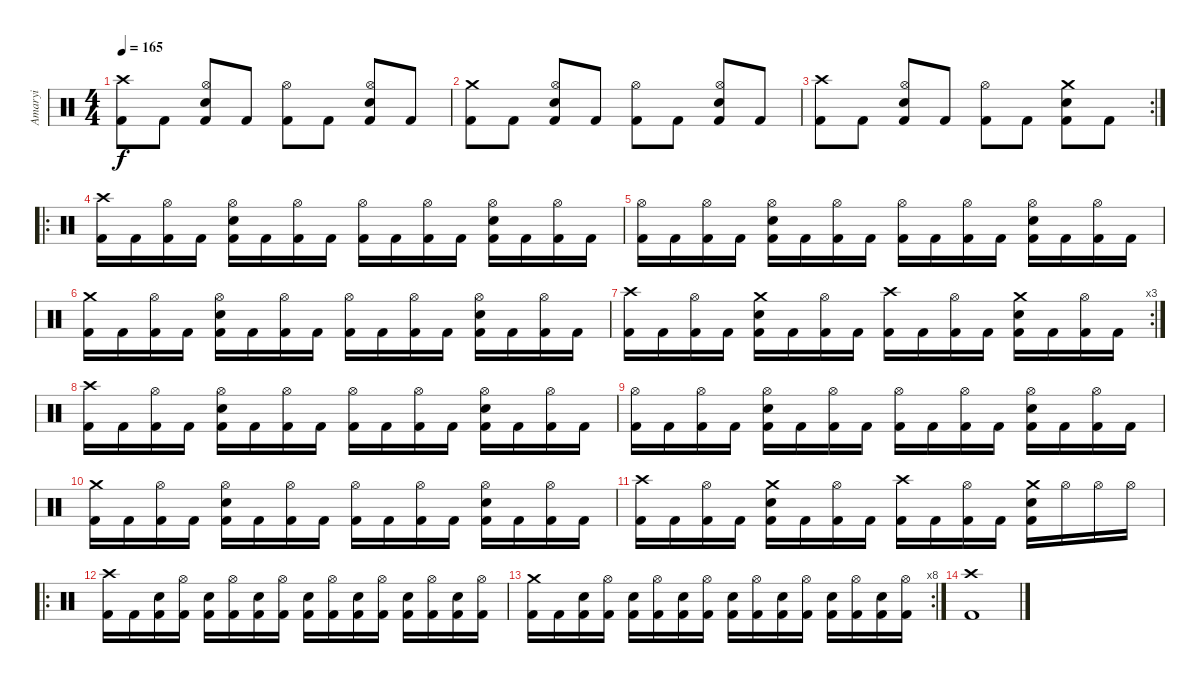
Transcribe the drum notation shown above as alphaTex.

\track ("Amaryi" "Amaryi") {instrument percussion}
\staff {score}
\articulation defaults
\ts (4 4)
\tempo 165
\clef neutral
\ks c
("Crash high (hit)" "Kick (hit) 2").8{dy f} "Kick (hit) 2".8 ("Hi-Hat (open)" "Electric Snare (hit)" "Kick (hit) 2").8 "Kick (hit) 2".8 ("Hi-Hat (open)" "Kick (hit) 2").8 "Kick (hit) 2".8 ("Hi-Hat (open)" "Electric Snare (hit)" "Kick (hit) 2").8 "Kick (hit) 2".8 |
("Crash medium (hit)" "Kick (hit) 2").8 "Kick (hit) 2".8 ("Hi-Hat (open)" "Electric Snare (hit)" "Kick (hit) 2").8 "Kick (hit) 2".8 ("Hi-Hat (open)" "Kick (hit) 2").8 "Kick (hit) 2".8 ("Hi-Hat (open)" "Electric Snare (hit)" "Kick (hit) 2").8 "Kick (hit) 2".8 |
\rc 2
("Crash high (hit)" "Kick (hit) 2").8 "Kick (hit) 2".8 ("Hi-Hat (open)" "Electric Snare (hit)" "Kick (hit) 2").8 "Kick (hit) 2".8 ("Hi-Hat (open)" "Kick (hit) 2").8 "Kick (hit) 2".8 ("Crash medium (hit)" "Electric Snare (hit)" "Kick (hit) 2").8 "Kick (hit) 2".8 |
\ro
("Crash high (hit)" "Kick (hit) 2").16 "Kick (hit) 2".16 ("Hi-Hat (open)" "Kick (hit) 2").16 "Kick (hit) 2".16 ("Hi-Hat (open)" "Electric Snare (hit)" "Kick (hit) 2").16 "Kick (hit) 2".16 ("Hi-Hat (open)" "Kick (hit) 2").16 "Kick (hit) 2".16 ("Hi-Hat (open)" "Kick (hit) 2").16 "Kick (hit) 2".16 ("Hi-Hat (open)" "Kick (hit) 2").16 "Kick (hit) 2".16 ("Hi-Hat (open)" "Electric Snare (hit)" "Kick (hit) 2").16 "Kick (hit) 2".16 ("Hi-Hat (open)" "Kick (hit) 2").16 "Kick (hit) 2".16 |
("Hi-Hat (open)" "Kick (hit) 2").16 "Kick (hit) 2".16 ("Hi-Hat (open)" "Kick (hit) 2").16 "Kick (hit) 2".16 ("Hi-Hat (open)" "Electric Snare (hit)" "Kick (hit) 2").16 "Kick (hit) 2".16 ("Hi-Hat (open)" "Kick (hit) 2").16 "Kick (hit) 2".16 ("Hi-Hat (open)" "Kick (hit) 2").16 "Kick (hit) 2".16 ("Hi-Hat (open)" "Kick (hit) 2").16 "Kick (hit) 2".16 ("Hi-Hat (open)" "Electric Snare (hit)" "Kick (hit) 2").16 "Kick (hit) 2".16 ("Hi-Hat (open)" "Kick (hit) 2").16 "Kick (hit) 2".16 |
("Crash medium (hit)" "Kick (hit) 2").16 "Kick (hit) 2".16 ("Hi-Hat (open)" "Kick (hit) 2").16 "Kick (hit) 2".16 ("Hi-Hat (open)" "Electric Snare (hit)" "Kick (hit) 2").16 "Kick (hit) 2".16 ("Hi-Hat (open)" "Kick (hit) 2").16 "Kick (hit) 2".16 ("Hi-Hat (open)" "Kick (hit) 2").16 "Kick (hit) 2".16 ("Hi-Hat (open)" "Kick (hit) 2").16 "Kick (hit) 2".16 ("Hi-Hat (open)" "Electric Snare (hit)" "Kick (hit) 2").16 "Kick (hit) 2".16 ("Hi-Hat (open)" "Kick (hit) 2").16 "Kick (hit) 2".16 |
\rc 3
("Crash high (hit)" "Kick (hit) 2").16 "Kick (hit) 2".16 ("Hi-Hat (open)" "Kick (hit) 2").16 "Kick (hit) 2".16 ("Crash medium (hit)" "Electric Snare (hit)" "Kick (hit) 2").16 "Kick (hit) 2".16 ("Hi-Hat (open)" "Kick (hit) 2").16 "Kick (hit) 2".16 ("Crash high (hit)" "Kick (hit) 2").16 "Kick (hit) 2".16 ("Hi-Hat (open)" "Kick (hit) 2").16 "Kick (hit) 2".16 ("Crash medium (hit)" "Electric Snare (hit)" "Kick (hit) 2").16 "Kick (hit) 2".16 ("Hi-Hat (open)" "Kick (hit) 2").16 "Kick (hit) 2".16 |
("Crash high (hit)" "Kick (hit) 2").16 "Kick (hit) 2".16 ("Hi-Hat (open)" "Kick (hit) 2").16 "Kick (hit) 2".16 ("Hi-Hat (open)" "Electric Snare (hit)" "Kick (hit) 2").16 "Kick (hit) 2".16 ("Hi-Hat (open)" "Kick (hit) 2").16 "Kick (hit) 2".16 ("Hi-Hat (open)" "Kick (hit) 2").16 "Kick (hit) 2".16 ("Hi-Hat (open)" "Kick (hit) 2").16 "Kick (hit) 2".16 ("Hi-Hat (open)" "Electric Snare (hit)" "Kick (hit) 2").16 "Kick (hit) 2".16 ("Hi-Hat (open)" "Kick (hit) 2").16 "Kick (hit) 2".16 |
("Hi-Hat (open)" "Kick (hit) 2").16 "Kick (hit) 2".16 ("Hi-Hat (open)" "Kick (hit) 2").16 "Kick (hit) 2".16 ("Hi-Hat (open)" "Electric Snare (hit)" "Kick (hit) 2").16 "Kick (hit) 2".16 ("Hi-Hat (open)" "Kick (hit) 2").16 "Kick (hit) 2".16 ("Hi-Hat (open)" "Kick (hit) 2").16 "Kick (hit) 2".16 ("Hi-Hat (open)" "Kick (hit) 2").16 "Kick (hit) 2".16 ("Hi-Hat (open)" "Electric Snare (hit)" "Kick (hit) 2").16 "Kick (hit) 2".16 ("Hi-Hat (open)" "Kick (hit) 2").16 "Kick (hit) 2".16 |
("Crash medium (hit)" "Kick (hit) 2").16 "Kick (hit) 2".16 ("Hi-Hat (open)" "Kick (hit) 2").16 "Kick (hit) 2".16 ("Hi-Hat (open)" "Electric Snare (hit)" "Kick (hit) 2").16 "Kick (hit) 2".16 ("Hi-Hat (open)" "Kick (hit) 2").16 "Kick (hit) 2".16 ("Hi-Hat (open)" "Kick (hit) 2").16 "Kick (hit) 2".16 ("Hi-Hat (open)" "Kick (hit) 2").16 "Kick (hit) 2".16 ("Hi-Hat (open)" "Electric Snare (hit)" "Kick (hit) 2").16 "Kick (hit) 2".16 ("Hi-Hat (open)" "Kick (hit) 2").16 "Kick (hit) 2".16 |
("Crash high (hit)" "Kick (hit) 2").16 "Kick (hit) 2".16 ("Hi-Hat (open)" "Kick (hit) 2").16 "Kick (hit) 2".16 ("Crash medium (hit)" "Electric Snare (hit)" "Kick (hit) 2").16 "Kick (hit) 2".16 ("Hi-Hat (open)" "Kick (hit) 2").16 "Kick (hit) 2".16 ("Crash high (hit)" "Kick (hit) 2").16 "Kick (hit) 2".16 ("Hi-Hat (open)" "Kick (hit) 2").16 "Kick (hit) 2".16 ("Crash medium (hit)" "Electric Snare (hit)" "Kick (hit) 2").16 "Hi-Hat (open)".16 "Hi-Hat (open)".16 "Hi-Hat (open)".16 |
\ro
("Crash high (hit)" "Kick (hit) 2").16 "Kick (hit) 2".16 ("Electric Snare (hit)" "Kick (hit) 2").16 ("Hi-Hat (open)" "Kick (hit) 2").16 ("Electric Snare (hit)" "Kick (hit) 2").16 ("Hi-Hat (open)" "Kick (hit) 2").16 ("Electric Snare (hit)" "Kick (hit) 2").16 ("Hi-Hat (open)" "Kick (hit) 2").16 ("Electric Snare (hit)" "Kick (hit) 2").16 ("Hi-Hat (open)" "Kick (hit) 2").16 ("Electric Snare (hit)" "Kick (hit) 2").16 ("Hi-Hat (open)" "Kick (hit) 2").16 ("Electric Snare (hit)" "Kick (hit) 2").16 ("Hi-Hat (open)" "Kick (hit) 2").16 ("Electric Snare (hit)" "Kick (hit) 2").16 ("Hi-Hat (open)" "Kick (hit) 2").16 |
\rc 8
("Crash medium (hit)" "Kick (hit) 2").16 "Kick (hit) 2".16 ("Electric Snare (hit)" "Kick (hit) 2").16 ("Hi-Hat (open)" "Kick (hit) 2").16 ("Electric Snare (hit)" "Kick (hit) 2").16 ("Hi-Hat (open)" "Kick (hit) 2").16 ("Electric Snare (hit)" "Kick (hit) 2").16 ("Hi-Hat (open)" "Kick (hit) 2").16 ("Electric Snare (hit)" "Kick (hit) 2").16 ("Hi-Hat (open)" "Kick (hit) 2").16 ("Electric Snare (hit)" "Kick (hit) 2").16 ("Hi-Hat (open)" "Kick (hit) 2").16 ("Electric Snare (hit)" "Kick (hit) 2").16 ("Hi-Hat (open)" "Kick (hit) 2").16 ("Electric Snare (hit)" "Kick (hit) 2").16 ("Hi-Hat (open)" "Kick (hit) 2").16 |
("Crash high (hit)" "Kick (hit) 2").1
